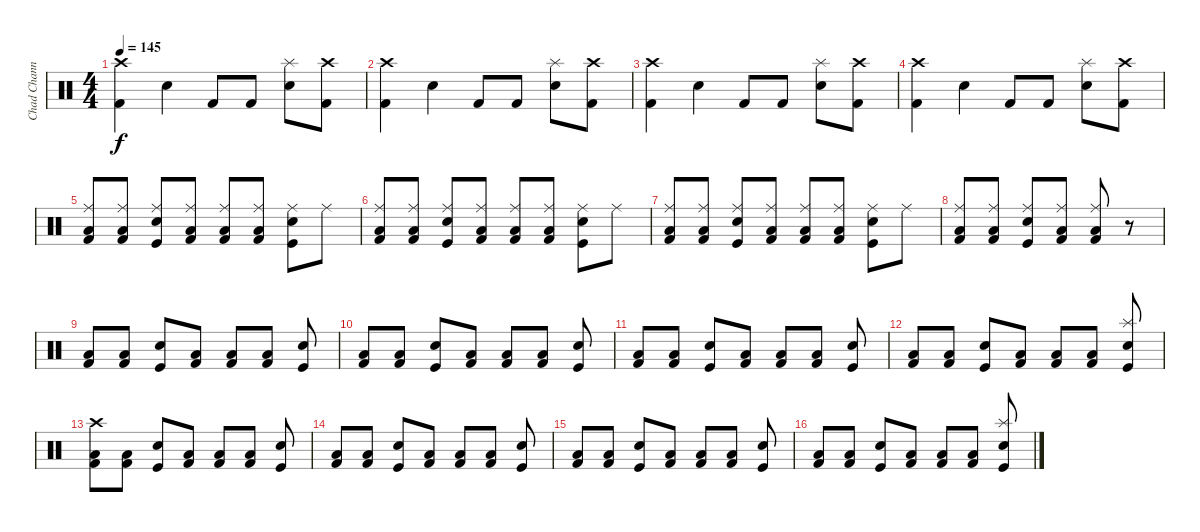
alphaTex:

\track ("Chad Channing" "Chad Chann") {instrument percussion}
\staff {score}
\articulation defaults
\ts (4 4)
\tempo 145
\clef neutral
\ks c
("Crash high (hit)" "Kick (hit) 2").4{dy f} "Snare (hit) 2".4 "Kick (hit) 2".8 "Kick (hit) 2".8 ("Splash (hit)" "Snare (hit) 2").8 ("Crash high (hit)" "Kick (hit) 2").8 |
("Crash high (hit)" "Kick (hit) 2").4 "Snare (hit) 2".4 "Kick (hit) 2".8 "Kick (hit) 2".8 ("Splash (hit)" "Snare (hit) 2").8 ("Crash high (hit)" "Kick (hit) 2").8 |
("Crash high (hit)" "Kick (hit) 2").4 "Snare (hit) 2".4 "Kick (hit) 2".8 "Kick (hit) 2".8 ("Splash (hit)" "Snare (hit) 2").8 ("Crash high (hit)" "Kick (hit) 2").8 |
("Crash high (hit)" "Kick (hit) 2").4 "Snare (hit) 2".4 "Kick (hit) 2".8 "Kick (hit) 2".8 ("Splash (hit)" "Snare (hit) 2").8 ("Crash high (hit)" "Kick (hit) 2").8 |
("Ride (middle)" "Low Floor Tom (hit)" "Kick (hit) 2").8 ("Ride (middle)" "Low Floor Tom (hit)" "Kick (hit) 2").8 ("Snare (hit) 2" "Ride (middle)" "Kick (hit)").8 ("Ride (middle)" "Low Floor Tom (hit)" "Kick (hit) 2").8 ("Ride (middle)" "Low Floor Tom (hit)" "Kick (hit) 2").8 ("Ride (middle)" "Low Floor Tom (hit)" "Kick (hit) 2").8 ("Snare (hit) 2" "Ride (middle)" "Kick (hit)").8 "Ride (middle)".8 |
("Ride (middle)" "Low Floor Tom (hit)" "Kick (hit) 2").8 ("Ride (middle)" "Low Floor Tom (hit)" "Kick (hit) 2").8 ("Snare (hit) 2" "Ride (middle)" "Kick (hit)").8 ("Ride (middle)" "Low Floor Tom (hit)" "Kick (hit) 2").8 ("Ride (middle)" "Low Floor Tom (hit)" "Kick (hit) 2").8 ("Ride (middle)" "Low Floor Tom (hit)" "Kick (hit) 2").8 ("Snare (hit) 2" "Ride (middle)" "Kick (hit)").8 "Ride (middle)".8 |
("Ride (middle)" "Low Floor Tom (hit)" "Kick (hit) 2").8 ("Ride (middle)" "Low Floor Tom (hit)" "Kick (hit) 2").8 ("Snare (hit) 2" "Ride (middle)" "Kick (hit)").8 ("Ride (middle)" "Low Floor Tom (hit)" "Kick (hit) 2").8 ("Ride (middle)" "Low Floor Tom (hit)" "Kick (hit) 2").8 ("Ride (middle)" "Low Floor Tom (hit)" "Kick (hit) 2").8 ("Snare (hit) 2" "Ride (middle)" "Kick (hit)").8 "Ride (middle)".8 |
("Ride (middle)" "Low Floor Tom (hit)" "Kick (hit) 2").8 ("Ride (middle)" "Low Floor Tom (hit)" "Kick (hit) 2").8 ("Snare (hit) 2" "Ride (middle)" "Kick (hit)").8 ("Ride (middle)" "Low Floor Tom (hit)" "Kick (hit) 2").8 ("Ride (middle)" "Low Floor Tom (hit)" "Kick (hit) 2").8 r.8 |
("Low Floor Tom (hit)" "Kick (hit) 2").8 ("Low Floor Tom (hit)" "Kick (hit) 2").8 ("Snare (hit) 2" "Kick (hit)").8 ("Low Floor Tom (hit)" "Kick (hit) 2").8 ("Low Floor Tom (hit)" "Kick (hit) 2").8 ("Low Floor Tom (hit)" "Kick (hit) 2").8 ("Snare (hit) 2" "Kick (hit)").8 |
("Low Floor Tom (hit)" "Kick (hit) 2").8 ("Low Floor Tom (hit)" "Kick (hit) 2").8 ("Snare (hit) 2" "Kick (hit)").8 ("Low Floor Tom (hit)" "Kick (hit) 2").8 ("Low Floor Tom (hit)" "Kick (hit) 2").8 ("Low Floor Tom (hit)" "Kick (hit) 2").8 ("Snare (hit) 2" "Kick (hit)").8 |
("Low Floor Tom (hit)" "Kick (hit) 2").8 ("Low Floor Tom (hit)" "Kick (hit) 2").8 ("Snare (hit) 2" "Kick (hit)").8 ("Low Floor Tom (hit)" "Kick (hit) 2").8 ("Low Floor Tom (hit)" "Kick (hit) 2").8 ("Low Floor Tom (hit)" "Kick (hit) 2").8 ("Snare (hit) 2" "Kick (hit)").8 |
("Low Floor Tom (hit)" "Kick (hit) 2").8 ("Low Floor Tom (hit)" "Kick (hit) 2").8 ("Snare (hit) 2" "Kick (hit)").8 ("Low Floor Tom (hit)" "Kick (hit) 2").8 ("Low Floor Tom (hit)" "Kick (hit) 2").8 ("Low Floor Tom (hit)" "Kick (hit) 2").8 ("Snare (hit) 2" "Splash (hit)" "Kick (hit)").8 |
("Crash high (hit)" "Low Floor Tom (hit)" "Kick (hit) 2").8 ("Low Floor Tom (hit)" "Kick (hit) 2").8 ("Snare (hit) 2" "Kick (hit)").8 ("Low Floor Tom (hit)" "Kick (hit) 2").8 ("Low Floor Tom (hit)" "Kick (hit) 2").8 ("Low Floor Tom (hit)" "Kick (hit) 2").8 ("Snare (hit) 2" "Kick (hit)").8 |
("Low Floor Tom (hit)" "Kick (hit) 2").8 ("Low Floor Tom (hit)" "Kick (hit) 2").8 ("Snare (hit) 2" "Kick (hit)").8 ("Low Floor Tom (hit)" "Kick (hit) 2").8 ("Low Floor Tom (hit)" "Kick (hit) 2").8 ("Low Floor Tom (hit)" "Kick (hit) 2").8 ("Snare (hit) 2" "Kick (hit)").8 |
("Low Floor Tom (hit)" "Kick (hit) 2").8 ("Low Floor Tom (hit)" "Kick (hit) 2").8 ("Snare (hit) 2" "Kick (hit)").8 ("Low Floor Tom (hit)" "Kick (hit) 2").8 ("Low Floor Tom (hit)" "Kick (hit) 2").8 ("Low Floor Tom (hit)" "Kick (hit) 2").8 ("Snare (hit) 2" "Kick (hit)").8 |
("Low Floor Tom (hit)" "Kick (hit) 2").8 ("Low Floor Tom (hit)" "Kick (hit) 2").8 ("Snare (hit) 2" "Kick (hit)").8 ("Low Floor Tom (hit)" "Kick (hit) 2").8 ("Low Floor Tom (hit)" "Kick (hit) 2").8 ("Low Floor Tom (hit)" "Kick (hit) 2").8 ("Snare (hit) 2" "Splash (hit)" "Kick (hit)").8
